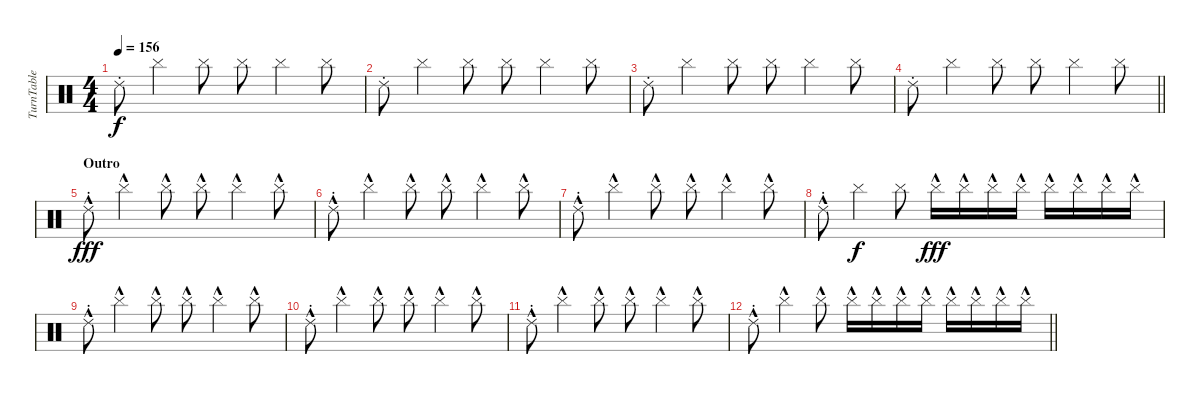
\track ("TurnTable" "TurnTable") {instrument percussion}
\staff {score}
\articulation defaults
\ts (4 4)
\tempo 156
\clef neutral
\ks c "Ride (choke) 2".8{dy f} "Cymbal (hit)".4 "Cymbal (hit)".8 "Cymbal (hit)".8 "Cymbal (hit)".4 "Cymbal (hit)".8
|
"Ride (choke) 2".8 "Cymbal (hit)".4 "Cymbal (hit)".8 "Cymbal (hit)".8 "Cymbal (hit)".4 "Cymbal (hit)".8 |
"Ride (choke) 2".8 "Cymbal (hit)".4 "Cymbal (hit)".8 "Cymbal (hit)".8 "Cymbal (hit)".4 "Cymbal (hit)".8 |
\barLineRight lightlight "Ride (choke) 2".8 "Cymbal (hit)".4 "Cymbal (hit)".8 "Cymbal (hit)".8 "Cymbal (hit)".4 "Cymbal (hit)".8
|
\section ("" "Outro")
"Ride (choke) 2"{hac}.8{dy fff} "Cymbal (hit)"{hac}.4 "Cymbal (hit)"{hac}.8 "Cymbal (hit)"{hac}.8 "Cymbal (hit)"{hac}.4 "Cymbal (hit)"{hac}.8 |
"Ride (choke) 2"{hac}.8 "Cymbal (hit)"{hac}.4 "Cymbal (hit)"{hac}.8 "Cymbal (hit)"{hac}.8 "Cymbal (hit)"{hac}.4 "Cymbal (hit)"{hac}.8 |
"Ride (choke) 2"{hac}.8 "Cymbal (hit)"{hac}.4 "Cymbal (hit)"{hac}.8 "Cymbal (hit)"{hac}.8 "Cymbal (hit)"{hac}.4 "Cymbal (hit)"{hac}.8 |
"Ride (choke) 2"{hac}.8 "Cymbal (hit)".4{dy f} "Cymbal (hit)".8 "Cymbal (hit)"{hac}.16{dy fff} "Cymbal (hit)"{hac}.16 "Cymbal (hit)"{hac}.16 "Cymbal (hit)"{hac}.16 "Cymbal (hit)"{hac}.16 "Cymbal (hit)"{hac}.16 "Cymbal (hit)"{hac}.16 "Cymbal (hit)"{hac}.16 |
"Ride (choke) 2"{hac}.8 "Cymbal (hit)"{hac}.4 "Cymbal (hit)"{hac}.8 "Cymbal (hit)"{hac}.8 "Cymbal (hit)"{hac}.4 "Cymbal (hit)"{hac}.8 |
"Ride (choke) 2"{hac}.8 "Cymbal (hit)"{hac}.4 "Cymbal (hit)"{hac}.8 "Cymbal (hit)"{hac}.8 "Cymbal (hit)"{hac}.4 "Cymbal (hit)"{hac}.8 |
"Ride (choke) 2"{hac}.8 "Cymbal (hit)"{hac}.4 "Cymbal (hit)"{hac}.8 "Cymbal (hit)"{hac}.8 "Cymbal (hit)"{hac}.4 "Cymbal (hit)"{hac}.8 |
\barLineRight lightlight "Ride (choke) 2"{hac}.8 "Cymbal (hit)"{hac}.4 "Cymbal (hit)"{hac}.8 "Cymbal (hit)"{hac}.16 "Cymbal (hit)"{hac}.16 "Cymbal (hit)"{hac}.16 "Cymbal (hit)"{hac}.16 "Cymbal (hit)"{hac}.16 "Cymbal (hit)"{hac}.16 "Cymbal (hit)"{hac}.16 "Cymbal (hit)"{hac}.16
